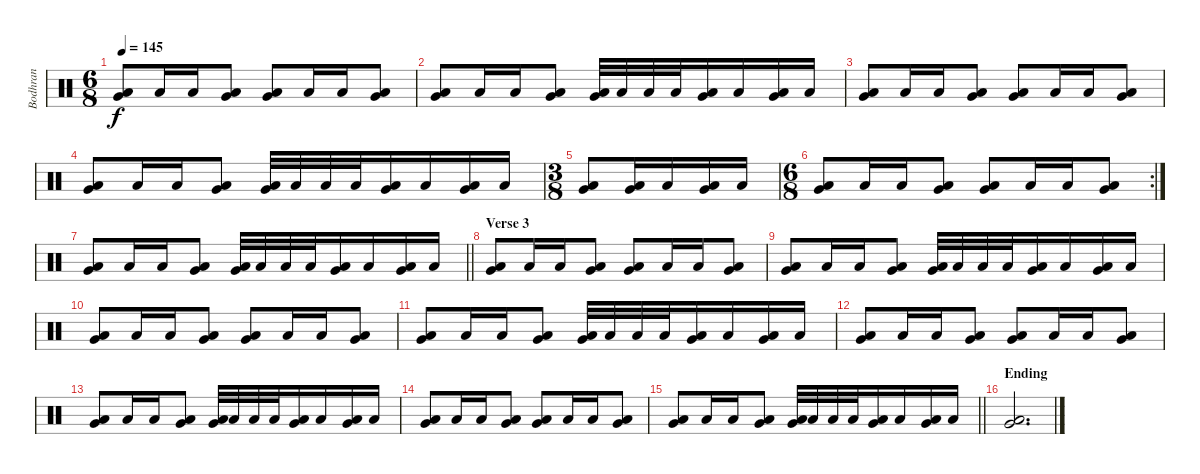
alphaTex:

\track ("Bodhran" "Bodhran") {instrument percussion}
\staff {score}
\articulation defaults
\ts (6 8)
\tempo 145
\clef neutral
\ks c
("Very Low Tom (hit)" "Low Floor Tom (hit)").8{dy f} "Low Floor Tom (hit)".16 "Low Floor Tom (hit)".16 ("Very Low Tom (hit)" "Low Floor Tom (hit)").8 ("Very Low Tom (hit)" "Low Floor Tom (hit)").8 "Low Floor Tom (hit)".16 "Low Floor Tom (hit)".16 ("Very Low Tom (hit)" "Low Floor Tom (hit)").8 |
("Very Low Tom (hit)" "Low Floor Tom (hit)").8 "Low Floor Tom (hit)".16 "Low Floor Tom (hit)".16 ("Very Low Tom (hit)" "Low Floor Tom (hit)").8 ("Very Low Tom (hit)" "Low Floor Tom (hit)").32 "Low Floor Tom (hit)".32 "Low Floor Tom (hit)".32 "Low Floor Tom (hit)".32 ("Very Low Tom (hit)" "Low Floor Tom (hit)").16 "Low Floor Tom (hit)".16 ("Very Low Tom (hit)" "Low Floor Tom (hit)").16 "Low Floor Tom (hit)".16 |
("Very Low Tom (hit)" "Low Floor Tom (hit)").8 "Low Floor Tom (hit)".16 "Low Floor Tom (hit)".16 ("Very Low Tom (hit)" "Low Floor Tom (hit)").8 ("Very Low Tom (hit)" "Low Floor Tom (hit)").8 "Low Floor Tom (hit)".16 "Low Floor Tom (hit)".16 ("Very Low Tom (hit)" "Low Floor Tom (hit)").8 |
("Very Low Tom (hit)" "Low Floor Tom (hit)").8 "Low Floor Tom (hit)".16 "Low Floor Tom (hit)".16 ("Very Low Tom (hit)" "Low Floor Tom (hit)").8 ("Very Low Tom (hit)" "Low Floor Tom (hit)").32 "Low Floor Tom (hit)".32 "Low Floor Tom (hit)".32 "Low Floor Tom (hit)".32 ("Very Low Tom (hit)" "Low Floor Tom (hit)").16 "Low Floor Tom (hit)".16 ("Very Low Tom (hit)" "Low Floor Tom (hit)").16 "Low Floor Tom (hit)".16 |
\ts (3 8)
("Very Low Tom (hit)" "Low Floor Tom (hit)").8 ("Very Low Tom (hit)" "Low Floor Tom (hit)").16 "Low Floor Tom (hit)".16 ("Very Low Tom (hit)" "Low Floor Tom (hit)").16 "Low Floor Tom (hit)".16 |
\rc 2
\ts (6 8)
("Very Low Tom (hit)" "Low Floor Tom (hit)").8 "Low Floor Tom (hit)".16 "Low Floor Tom (hit)".16 ("Very Low Tom (hit)" "Low Floor Tom (hit)").8 ("Very Low Tom (hit)" "Low Floor Tom (hit)").8 "Low Floor Tom (hit)".16 "Low Floor Tom (hit)".16 ("Very Low Tom (hit)" "Low Floor Tom (hit)").8 |
\barLineRight lightlight
("Very Low Tom (hit)" "Low Floor Tom (hit)").8 "Low Floor Tom (hit)".16 "Low Floor Tom (hit)".16 ("Very Low Tom (hit)" "Low Floor Tom (hit)").8 ("Very Low Tom (hit)" "Low Floor Tom (hit)").32 "Low Floor Tom (hit)".32 "Low Floor Tom (hit)".32 "Low Floor Tom (hit)".32 ("Very Low Tom (hit)" "Low Floor Tom (hit)").16 "Low Floor Tom (hit)".16 ("Very Low Tom (hit)" "Low Floor Tom (hit)").16 "Low Floor Tom (hit)".16 |
\section ("" "Verse 3")
("Very Low Tom (hit)" "Low Floor Tom (hit)").8 "Low Floor Tom (hit)".16 "Low Floor Tom (hit)".16 ("Very Low Tom (hit)" "Low Floor Tom (hit)").8 ("Very Low Tom (hit)" "Low Floor Tom (hit)").8 "Low Floor Tom (hit)".16 "Low Floor Tom (hit)".16 ("Very Low Tom (hit)" "Low Floor Tom (hit)").8 |
("Very Low Tom (hit)" "Low Floor Tom (hit)").8 "Low Floor Tom (hit)".16 "Low Floor Tom (hit)".16 ("Very Low Tom (hit)" "Low Floor Tom (hit)").8 ("Very Low Tom (hit)" "Low Floor Tom (hit)").32 "Low Floor Tom (hit)".32 "Low Floor Tom (hit)".32 "Low Floor Tom (hit)".32 ("Very Low Tom (hit)" "Low Floor Tom (hit)").16 "Low Floor Tom (hit)".16 ("Very Low Tom (hit)" "Low Floor Tom (hit)").16 "Low Floor Tom (hit)".16 |
("Very Low Tom (hit)" "Low Floor Tom (hit)").8 "Low Floor Tom (hit)".16 "Low Floor Tom (hit)".16 ("Very Low Tom (hit)" "Low Floor Tom (hit)").8 ("Very Low Tom (hit)" "Low Floor Tom (hit)").8 "Low Floor Tom (hit)".16 "Low Floor Tom (hit)".16 ("Very Low Tom (hit)" "Low Floor Tom (hit)").8 |
("Very Low Tom (hit)" "Low Floor Tom (hit)").8 "Low Floor Tom (hit)".16 "Low Floor Tom (hit)".16 ("Very Low Tom (hit)" "Low Floor Tom (hit)").8 ("Very Low Tom (hit)" "Low Floor Tom (hit)").32 "Low Floor Tom (hit)".32 "Low Floor Tom (hit)".32 "Low Floor Tom (hit)".32 ("Very Low Tom (hit)" "Low Floor Tom (hit)").16 "Low Floor Tom (hit)".16 ("Very Low Tom (hit)" "Low Floor Tom (hit)").16 "Low Floor Tom (hit)".16 |
("Very Low Tom (hit)" "Low Floor Tom (hit)").8 "Low Floor Tom (hit)".16 "Low Floor Tom (hit)".16 ("Very Low Tom (hit)" "Low Floor Tom (hit)").8 ("Very Low Tom (hit)" "Low Floor Tom (hit)").8 "Low Floor Tom (hit)".16 "Low Floor Tom (hit)".16 ("Very Low Tom (hit)" "Low Floor Tom (hit)").8 |
("Very Low Tom (hit)" "Low Floor Tom (hit)").8 "Low Floor Tom (hit)".16 "Low Floor Tom (hit)".16 ("Very Low Tom (hit)" "Low Floor Tom (hit)").8 ("Very Low Tom (hit)" "Low Floor Tom (hit)").32 "Low Floor Tom (hit)".32 "Low Floor Tom (hit)".32 "Low Floor Tom (hit)".32 ("Very Low Tom (hit)" "Low Floor Tom (hit)").16 "Low Floor Tom (hit)".16 ("Very Low Tom (hit)" "Low Floor Tom (hit)").16 "Low Floor Tom (hit)".16 |
("Very Low Tom (hit)" "Low Floor Tom (hit)").8 "Low Floor Tom (hit)".16 "Low Floor Tom (hit)".16 ("Very Low Tom (hit)" "Low Floor Tom (hit)").8 ("Very Low Tom (hit)" "Low Floor Tom (hit)").8 "Low Floor Tom (hit)".16 "Low Floor Tom (hit)".16 ("Very Low Tom (hit)" "Low Floor Tom (hit)").8 |
\barLineRight lightlight
("Very Low Tom (hit)" "Low Floor Tom (hit)").8 "Low Floor Tom (hit)".16 "Low Floor Tom (hit)".16 ("Very Low Tom (hit)" "Low Floor Tom (hit)").8 ("Very Low Tom (hit)" "Low Floor Tom (hit)").32 "Low Floor Tom (hit)".32 "Low Floor Tom (hit)".32 "Low Floor Tom (hit)".32 ("Very Low Tom (hit)" "Low Floor Tom (hit)").16 "Low Floor Tom (hit)".16 ("Very Low Tom (hit)" "Low Floor Tom (hit)").16 "Low Floor Tom (hit)".16 |
\section ("" "Ending")
("Very Low Tom (hit)" "Low Floor Tom (hit)").2{d}
